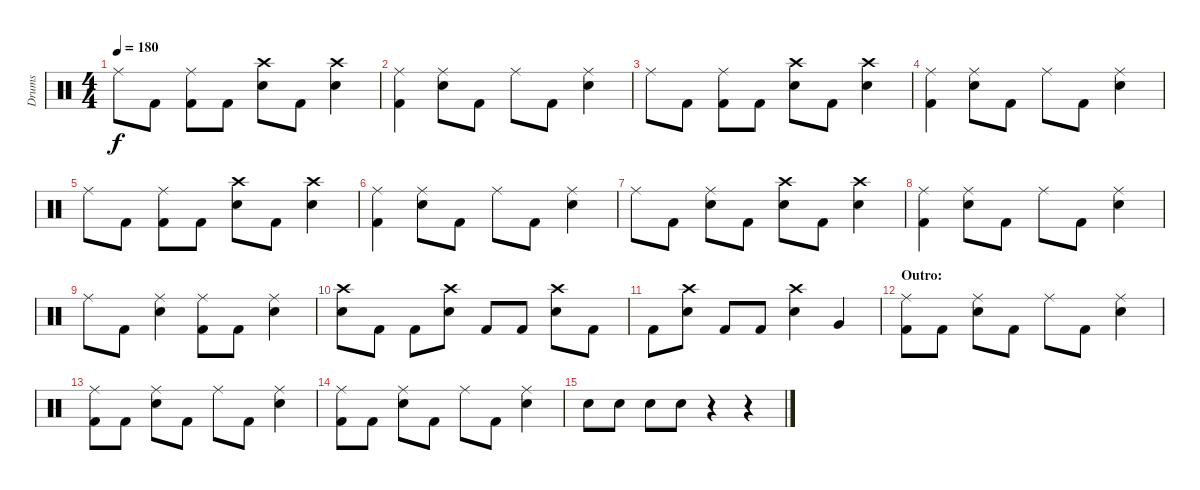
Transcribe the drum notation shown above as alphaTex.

\track ("Drums" "Drums") {instrument percussion}
\staff {score}
\articulation defaults
\ts (4 4)
\tempo 180
\clef neutral
\ks c "Ride (middle)".8{dy f} "Kick (hit) 2".8
("Ride (middle)" "Kick (hit) 2").8 "Kick (hit) 2".8 ("Crash high (hit)" "Electric Snare (hit)").8 "Kick (hit) 2".8 ("Crash high (hit)" "Electric Snare (hit)").4 |
("Ride (middle)" "Kick (hit) 2").4 ("Ride (middle)" "Electric Snare (hit)").8 "Kick (hit) 2".8 "Ride (middle)".8 "Kick (hit) 2".8 ("Ride (middle)" "Electric Snare (hit)").4 |
"Ride (middle)".8 "Kick (hit) 2".8 ("Ride (middle)" "Kick (hit) 2").8 "Kick (hit) 2".8 ("Crash high (hit)" "Electric Snare (hit)").8 "Kick (hit) 2".8 ("Crash high (hit)" "Electric Snare (hit)").4 |
("Ride (middle)" "Kick (hit) 2").4 ("Ride (middle)" "Electric Snare (hit)").8 "Kick (hit) 2".8 "Ride (middle)".8 "Kick (hit) 2".8 ("Ride (middle)" "Electric Snare (hit)").4 |
"Ride (middle)".8 "Kick (hit) 2".8 ("Ride (middle)" "Kick (hit) 2").8 "Kick (hit) 2".8 ("Crash high (hit)" "Electric Snare (hit)").8 "Kick (hit) 2".8 ("Crash high (hit)" "Electric Snare (hit)").4 |
("Ride (middle)" "Kick (hit) 2").4 ("Ride (middle)" "Electric Snare (hit)").8 "Kick (hit) 2".8 "Ride (middle)".8 "Kick (hit) 2".8 ("Ride (middle)" "Electric Snare (hit)").4 |
"Ride (middle)".8 "Kick (hit) 2".8 ("Ride (middle)" "Electric Snare (hit)").8 "Kick (hit) 2".8 ("Crash high (hit)" "Electric Snare (hit)").8 "Kick (hit) 2".8 ("Crash high (hit)" "Electric Snare (hit)").4 |
("Ride (middle)" "Kick (hit) 2").4 ("Ride (middle)" "Electric Snare (hit)").8 "Kick (hit) 2".8 "Ride (middle)".8 "Kick (hit) 2".8 ("Ride (middle)" "Electric Snare (hit)").4 |
"Ride (middle)".8 "Kick (hit) 2".8 ("Ride (middle)" "Electric Snare (hit)").4 ("Ride (middle)" "Kick (hit) 2").8 "Kick (hit) 2".8 ("Ride (middle)" "Electric Snare (hit)").4 |
("Crash high (hit)" "Electric Snare (hit)").8 "Kick (hit) 2".8 "Kick (hit) 2".8 ("Crash high (hit)" "Electric Snare (hit)").8 "Kick (hit) 2".8 "Kick (hit) 2".8 ("Crash high (hit)" "Electric Snare (hit)").8 "Kick (hit) 2".8 |
"Kick (hit) 2".8 ("Crash high (hit)" "Electric Snare (hit)").8 "Kick (hit) 2".8 "Kick (hit) 2".8 ("Crash high (hit)" "Electric Snare (hit)").4 "Very Low Tom (hit)".4 |
\section ("" "Outro:")
("Ride (middle)" "Kick (hit) 2").8 "Kick (hit) 2".8 ("Ride (middle)" "Electric Snare (hit)").8 "Kick (hit) 2".8 "Ride (middle)".8 "Kick (hit) 2".8 ("Ride (middle)" "Electric Snare (hit)").4 |
("Ride (middle)" "Kick (hit) 2").8 "Kick (hit) 2".8 ("Ride (middle)" "Electric Snare (hit)").8 "Kick (hit) 2".8 "Ride (middle)".8 "Kick (hit) 2".8 ("Ride (middle)" "Electric Snare (hit)").4 |
("Ride (middle)" "Kick (hit) 2").8 "Kick (hit) 2".8 ("Ride (middle)" "Electric Snare (hit)").8 "Kick (hit) 2".8 "Ride (middle)".8 "Kick (hit) 2".8 ("Ride (middle)" "Electric Snare (hit)").4 |
"Electric Snare (hit)".8 "Electric Snare (hit)".8 "Electric Snare (hit)".8 "Electric Snare (hit)".8 r.4 r.4
